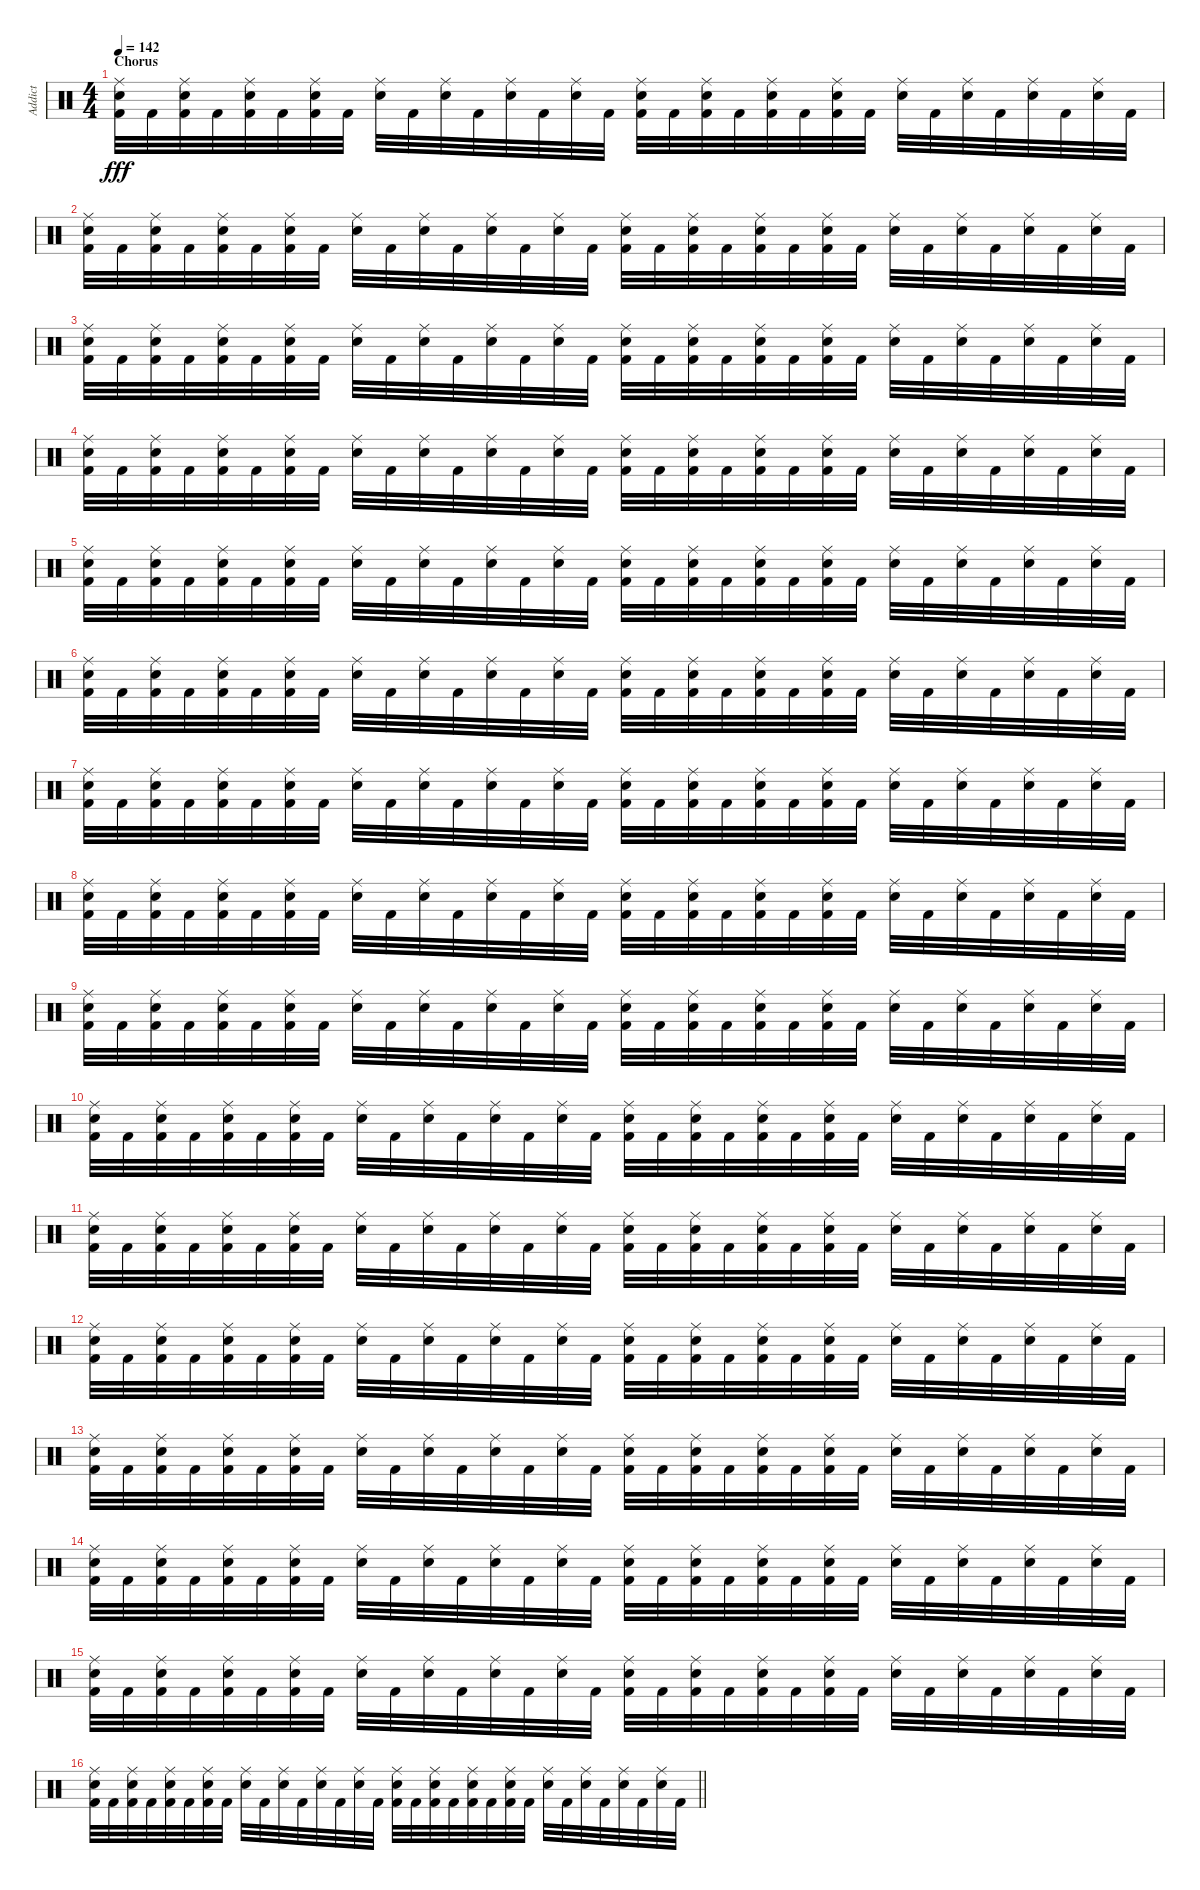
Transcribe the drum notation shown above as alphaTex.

\track ("Addict" "Addict") {instrument percussion}
\staff {score}
\articulation defaults
\ts (4 4)
\section ("" "Chorus")
\tempo 142
\clef neutral
\ks c
("Kick (hit) 2" "Snare (hit) 2" "Ride (middle)").32{dy fff} "Kick (hit) 2".32 ("Kick (hit) 2" "Snare (hit) 2" "Ride (middle)").32 "Kick (hit) 2".32 ("Kick (hit) 2" "Snare (hit) 2" "Ride (middle)").32 "Kick (hit) 2".32 ("Kick (hit) 2" "Snare (hit) 2" "Ride (middle)").32 "Kick (hit) 2".32 ("Snare (hit) 2" "Ride (middle)").32 "Kick (hit) 2".32 ("Snare (hit) 2" "Ride (middle)").32 "Kick (hit) 2".32 ("Snare (hit) 2" "Ride (middle)").32 "Kick (hit) 2".32 ("Snare (hit) 2" "Ride (middle)").32 "Kick (hit) 2".32 ("Kick (hit) 2" "Snare (hit) 2" "Ride (middle)").32 "Kick (hit) 2".32 ("Kick (hit) 2" "Snare (hit) 2" "Ride (middle)").32 "Kick (hit) 2".32 ("Kick (hit) 2" "Snare (hit) 2" "Ride (middle)").32 "Kick (hit) 2".32 ("Kick (hit) 2" "Snare (hit) 2" "Ride (middle)").32 "Kick (hit) 2".32 ("Snare (hit) 2" "Ride (middle)").32 "Kick (hit) 2".32 ("Snare (hit) 2" "Ride (middle)").32 "Kick (hit) 2".32 ("Snare (hit) 2" "Ride (middle)").32 "Kick (hit) 2".32 ("Snare (hit) 2" "Ride (middle)").32 "Kick (hit) 2".32 |
("Kick (hit) 2" "Snare (hit) 2" "Ride (middle)").32 "Kick (hit) 2".32 ("Kick (hit) 2" "Snare (hit) 2" "Ride (middle)").32 "Kick (hit) 2".32 ("Kick (hit) 2" "Snare (hit) 2" "Ride (middle)").32 "Kick (hit) 2".32 ("Kick (hit) 2" "Snare (hit) 2" "Ride (middle)").32 "Kick (hit) 2".32 ("Snare (hit) 2" "Ride (middle)").32 "Kick (hit) 2".32 ("Snare (hit) 2" "Ride (middle)").32 "Kick (hit) 2".32 ("Snare (hit) 2" "Ride (middle)").32 "Kick (hit) 2".32 ("Snare (hit) 2" "Ride (middle)").32 "Kick (hit) 2".32 ("Kick (hit) 2" "Snare (hit) 2" "Ride (middle)").32 "Kick (hit) 2".32 ("Kick (hit) 2" "Snare (hit) 2" "Ride (middle)").32 "Kick (hit) 2".32 ("Kick (hit) 2" "Snare (hit) 2" "Ride (middle)").32 "Kick (hit) 2".32 ("Kick (hit) 2" "Snare (hit) 2" "Ride (middle)").32 "Kick (hit) 2".32 ("Snare (hit) 2" "Ride (middle)").32 "Kick (hit) 2".32 ("Snare (hit) 2" "Ride (middle)").32 "Kick (hit) 2".32 ("Snare (hit) 2" "Ride (middle)").32 "Kick (hit) 2".32 ("Snare (hit) 2" "Ride (middle)").32 "Kick (hit) 2".32 |
("Kick (hit) 2" "Snare (hit) 2" "Ride (middle)").32 "Kick (hit) 2".32 ("Kick (hit) 2" "Snare (hit) 2" "Ride (middle)").32 "Kick (hit) 2".32 ("Kick (hit) 2" "Snare (hit) 2" "Ride (middle)").32 "Kick (hit) 2".32 ("Kick (hit) 2" "Snare (hit) 2" "Ride (middle)").32 "Kick (hit) 2".32 ("Snare (hit) 2" "Ride (middle)").32 "Kick (hit) 2".32 ("Snare (hit) 2" "Ride (middle)").32 "Kick (hit) 2".32 ("Snare (hit) 2" "Ride (middle)").32 "Kick (hit) 2".32 ("Snare (hit) 2" "Ride (middle)").32 "Kick (hit) 2".32 ("Kick (hit) 2" "Snare (hit) 2" "Ride (middle)").32 "Kick (hit) 2".32 ("Kick (hit) 2" "Snare (hit) 2" "Ride (middle)").32 "Kick (hit) 2".32 ("Kick (hit) 2" "Snare (hit) 2" "Ride (middle)").32 "Kick (hit) 2".32 ("Kick (hit) 2" "Snare (hit) 2" "Ride (middle)").32 "Kick (hit) 2".32 ("Snare (hit) 2" "Ride (middle)").32 "Kick (hit) 2".32 ("Snare (hit) 2" "Ride (middle)").32 "Kick (hit) 2".32 ("Snare (hit) 2" "Ride (middle)").32 "Kick (hit) 2".32 ("Snare (hit) 2" "Ride (middle)").32 "Kick (hit) 2".32 |
("Kick (hit) 2" "Snare (hit) 2" "Ride (middle)").32 "Kick (hit) 2".32 ("Kick (hit) 2" "Snare (hit) 2" "Ride (middle)").32 "Kick (hit) 2".32 ("Kick (hit) 2" "Snare (hit) 2" "Ride (middle)").32 "Kick (hit) 2".32 ("Kick (hit) 2" "Snare (hit) 2" "Ride (middle)").32 "Kick (hit) 2".32 ("Snare (hit) 2" "Ride (middle)").32 "Kick (hit) 2".32 ("Snare (hit) 2" "Ride (middle)").32 "Kick (hit) 2".32 ("Snare (hit) 2" "Ride (middle)").32 "Kick (hit) 2".32 ("Snare (hit) 2" "Ride (middle)").32 "Kick (hit) 2".32 ("Kick (hit) 2" "Snare (hit) 2" "Ride (middle)").32 "Kick (hit) 2".32 ("Kick (hit) 2" "Snare (hit) 2" "Ride (middle)").32 "Kick (hit) 2".32 ("Kick (hit) 2" "Snare (hit) 2" "Ride (middle)").32 "Kick (hit) 2".32 ("Kick (hit) 2" "Snare (hit) 2" "Ride (middle)").32 "Kick (hit) 2".32 ("Snare (hit) 2" "Ride (middle)").32 "Kick (hit) 2".32 ("Snare (hit) 2" "Ride (middle)").32 "Kick (hit) 2".32 ("Snare (hit) 2" "Ride (middle)").32 "Kick (hit) 2".32 ("Snare (hit) 2" "Ride (middle)").32 "Kick (hit) 2".32 |
("Kick (hit) 2" "Snare (hit) 2" "Ride (middle)").32 "Kick (hit) 2".32 ("Kick (hit) 2" "Snare (hit) 2" "Ride (middle)").32 "Kick (hit) 2".32 ("Kick (hit) 2" "Snare (hit) 2" "Ride (middle)").32 "Kick (hit) 2".32 ("Kick (hit) 2" "Snare (hit) 2" "Ride (middle)").32 "Kick (hit) 2".32 ("Snare (hit) 2" "Ride (middle)").32 "Kick (hit) 2".32 ("Snare (hit) 2" "Ride (middle)").32 "Kick (hit) 2".32 ("Snare (hit) 2" "Ride (middle)").32 "Kick (hit) 2".32 ("Snare (hit) 2" "Ride (middle)").32 "Kick (hit) 2".32 ("Kick (hit) 2" "Snare (hit) 2" "Ride (middle)").32 "Kick (hit) 2".32 ("Kick (hit) 2" "Snare (hit) 2" "Ride (middle)").32 "Kick (hit) 2".32 ("Kick (hit) 2" "Snare (hit) 2" "Ride (middle)").32 "Kick (hit) 2".32 ("Kick (hit) 2" "Snare (hit) 2" "Ride (middle)").32 "Kick (hit) 2".32 ("Snare (hit) 2" "Ride (middle)").32 "Kick (hit) 2".32 ("Snare (hit) 2" "Ride (middle)").32 "Kick (hit) 2".32 ("Snare (hit) 2" "Ride (middle)").32 "Kick (hit) 2".32 ("Snare (hit) 2" "Ride (middle)").32 "Kick (hit) 2".32 |
("Kick (hit) 2" "Snare (hit) 2" "Ride (middle)").32 "Kick (hit) 2".32 ("Kick (hit) 2" "Snare (hit) 2" "Ride (middle)").32 "Kick (hit) 2".32 ("Kick (hit) 2" "Snare (hit) 2" "Ride (middle)").32 "Kick (hit) 2".32 ("Kick (hit) 2" "Snare (hit) 2" "Ride (middle)").32 "Kick (hit) 2".32 ("Snare (hit) 2" "Ride (middle)").32 "Kick (hit) 2".32 ("Snare (hit) 2" "Ride (middle)").32 "Kick (hit) 2".32 ("Snare (hit) 2" "Ride (middle)").32 "Kick (hit) 2".32 ("Snare (hit) 2" "Ride (middle)").32 "Kick (hit) 2".32 ("Kick (hit) 2" "Snare (hit) 2" "Ride (middle)").32 "Kick (hit) 2".32 ("Kick (hit) 2" "Snare (hit) 2" "Ride (middle)").32 "Kick (hit) 2".32 ("Kick (hit) 2" "Snare (hit) 2" "Ride (middle)").32 "Kick (hit) 2".32 ("Kick (hit) 2" "Snare (hit) 2" "Ride (middle)").32 "Kick (hit) 2".32 ("Snare (hit) 2" "Ride (middle)").32 "Kick (hit) 2".32 ("Snare (hit) 2" "Ride (middle)").32 "Kick (hit) 2".32 ("Snare (hit) 2" "Ride (middle)").32 "Kick (hit) 2".32 ("Snare (hit) 2" "Ride (middle)").32 "Kick (hit) 2".32 |
("Kick (hit) 2" "Snare (hit) 2" "Ride (middle)").32 "Kick (hit) 2".32 ("Kick (hit) 2" "Snare (hit) 2" "Ride (middle)").32 "Kick (hit) 2".32 ("Kick (hit) 2" "Snare (hit) 2" "Ride (middle)").32 "Kick (hit) 2".32 ("Kick (hit) 2" "Snare (hit) 2" "Ride (middle)").32 "Kick (hit) 2".32 ("Snare (hit) 2" "Ride (middle)").32 "Kick (hit) 2".32 ("Snare (hit) 2" "Ride (middle)").32 "Kick (hit) 2".32 ("Snare (hit) 2" "Ride (middle)").32 "Kick (hit) 2".32 ("Snare (hit) 2" "Ride (middle)").32 "Kick (hit) 2".32 ("Kick (hit) 2" "Snare (hit) 2" "Ride (middle)").32 "Kick (hit) 2".32 ("Kick (hit) 2" "Snare (hit) 2" "Ride (middle)").32 "Kick (hit) 2".32 ("Kick (hit) 2" "Snare (hit) 2" "Ride (middle)").32 "Kick (hit) 2".32 ("Kick (hit) 2" "Snare (hit) 2" "Ride (middle)").32 "Kick (hit) 2".32 ("Snare (hit) 2" "Ride (middle)").32 "Kick (hit) 2".32 ("Snare (hit) 2" "Ride (middle)").32 "Kick (hit) 2".32 ("Snare (hit) 2" "Ride (middle)").32 "Kick (hit) 2".32 ("Snare (hit) 2" "Ride (middle)").32 "Kick (hit) 2".32 |
("Kick (hit) 2" "Snare (hit) 2" "Ride (middle)").32 "Kick (hit) 2".32 ("Kick (hit) 2" "Snare (hit) 2" "Ride (middle)").32 "Kick (hit) 2".32 ("Kick (hit) 2" "Snare (hit) 2" "Ride (middle)").32 "Kick (hit) 2".32 ("Kick (hit) 2" "Snare (hit) 2" "Ride (middle)").32 "Kick (hit) 2".32 ("Snare (hit) 2" "Ride (middle)").32 "Kick (hit) 2".32 ("Snare (hit) 2" "Ride (middle)").32 "Kick (hit) 2".32 ("Snare (hit) 2" "Ride (middle)").32 "Kick (hit) 2".32 ("Snare (hit) 2" "Ride (middle)").32 "Kick (hit) 2".32 ("Kick (hit) 2" "Snare (hit) 2" "Ride (middle)").32 "Kick (hit) 2".32 ("Kick (hit) 2" "Snare (hit) 2" "Ride (middle)").32 "Kick (hit) 2".32 ("Kick (hit) 2" "Snare (hit) 2" "Ride (middle)").32 "Kick (hit) 2".32 ("Kick (hit) 2" "Snare (hit) 2" "Ride (middle)").32 "Kick (hit) 2".32 ("Snare (hit) 2" "Ride (middle)").32 "Kick (hit) 2".32 ("Snare (hit) 2" "Ride (middle)").32 "Kick (hit) 2".32 ("Snare (hit) 2" "Ride (middle)").32 "Kick (hit) 2".32 ("Snare (hit) 2" "Ride (middle)").32 "Kick (hit) 2".32 |
("Kick (hit) 2" "Snare (hit) 2" "Ride (middle)").32 "Kick (hit) 2".32 ("Kick (hit) 2" "Snare (hit) 2" "Ride (middle)").32 "Kick (hit) 2".32 ("Kick (hit) 2" "Snare (hit) 2" "Ride (middle)").32 "Kick (hit) 2".32 ("Kick (hit) 2" "Snare (hit) 2" "Ride (middle)").32 "Kick (hit) 2".32 ("Snare (hit) 2" "Ride (middle)").32 "Kick (hit) 2".32 ("Snare (hit) 2" "Ride (middle)").32 "Kick (hit) 2".32 ("Snare (hit) 2" "Ride (middle)").32 "Kick (hit) 2".32 ("Snare (hit) 2" "Ride (middle)").32 "Kick (hit) 2".32 ("Kick (hit) 2" "Snare (hit) 2" "Ride (middle)").32 "Kick (hit) 2".32 ("Kick (hit) 2" "Snare (hit) 2" "Ride (middle)").32 "Kick (hit) 2".32 ("Kick (hit) 2" "Snare (hit) 2" "Ride (middle)").32 "Kick (hit) 2".32 ("Kick (hit) 2" "Snare (hit) 2" "Ride (middle)").32 "Kick (hit) 2".32 ("Snare (hit) 2" "Ride (middle)").32 "Kick (hit) 2".32 ("Snare (hit) 2" "Ride (middle)").32 "Kick (hit) 2".32 ("Snare (hit) 2" "Ride (middle)").32 "Kick (hit) 2".32 ("Snare (hit) 2" "Ride (middle)").32 "Kick (hit) 2".32 |
("Kick (hit) 2" "Snare (hit) 2" "Ride (middle)").32 "Kick (hit) 2".32 ("Kick (hit) 2" "Snare (hit) 2" "Ride (middle)").32 "Kick (hit) 2".32 ("Kick (hit) 2" "Snare (hit) 2" "Ride (middle)").32 "Kick (hit) 2".32 ("Kick (hit) 2" "Snare (hit) 2" "Ride (middle)").32 "Kick (hit) 2".32 ("Snare (hit) 2" "Ride (middle)").32 "Kick (hit) 2".32 ("Snare (hit) 2" "Ride (middle)").32 "Kick (hit) 2".32 ("Snare (hit) 2" "Ride (middle)").32 "Kick (hit) 2".32 ("Snare (hit) 2" "Ride (middle)").32 "Kick (hit) 2".32 ("Kick (hit) 2" "Snare (hit) 2" "Ride (middle)").32 "Kick (hit) 2".32 ("Kick (hit) 2" "Snare (hit) 2" "Ride (middle)").32 "Kick (hit) 2".32 ("Kick (hit) 2" "Snare (hit) 2" "Ride (middle)").32 "Kick (hit) 2".32 ("Kick (hit) 2" "Snare (hit) 2" "Ride (middle)").32 "Kick (hit) 2".32 ("Snare (hit) 2" "Ride (middle)").32 "Kick (hit) 2".32 ("Snare (hit) 2" "Ride (middle)").32 "Kick (hit) 2".32 ("Snare (hit) 2" "Ride (middle)").32 "Kick (hit) 2".32 ("Snare (hit) 2" "Ride (middle)").32 "Kick (hit) 2".32 |
("Kick (hit) 2" "Snare (hit) 2" "Ride (middle)").32 "Kick (hit) 2".32 ("Kick (hit) 2" "Snare (hit) 2" "Ride (middle)").32 "Kick (hit) 2".32 ("Kick (hit) 2" "Snare (hit) 2" "Ride (middle)").32 "Kick (hit) 2".32 ("Kick (hit) 2" "Snare (hit) 2" "Ride (middle)").32 "Kick (hit) 2".32 ("Snare (hit) 2" "Ride (middle)").32 "Kick (hit) 2".32 ("Snare (hit) 2" "Ride (middle)").32 "Kick (hit) 2".32 ("Snare (hit) 2" "Ride (middle)").32 "Kick (hit) 2".32 ("Snare (hit) 2" "Ride (middle)").32 "Kick (hit) 2".32 ("Kick (hit) 2" "Snare (hit) 2" "Ride (middle)").32 "Kick (hit) 2".32 ("Kick (hit) 2" "Snare (hit) 2" "Ride (middle)").32 "Kick (hit) 2".32 ("Kick (hit) 2" "Snare (hit) 2" "Ride (middle)").32 "Kick (hit) 2".32 ("Kick (hit) 2" "Snare (hit) 2" "Ride (middle)").32 "Kick (hit) 2".32 ("Snare (hit) 2" "Ride (middle)").32 "Kick (hit) 2".32 ("Snare (hit) 2" "Ride (middle)").32 "Kick (hit) 2".32 ("Snare (hit) 2" "Ride (middle)").32 "Kick (hit) 2".32 ("Snare (hit) 2" "Ride (middle)").32 "Kick (hit) 2".32 |
("Kick (hit) 2" "Snare (hit) 2" "Ride (middle)").32 "Kick (hit) 2".32 ("Kick (hit) 2" "Snare (hit) 2" "Ride (middle)").32 "Kick (hit) 2".32 ("Kick (hit) 2" "Snare (hit) 2" "Ride (middle)").32 "Kick (hit) 2".32 ("Kick (hit) 2" "Snare (hit) 2" "Ride (middle)").32 "Kick (hit) 2".32 ("Snare (hit) 2" "Ride (middle)").32 "Kick (hit) 2".32 ("Snare (hit) 2" "Ride (middle)").32 "Kick (hit) 2".32 ("Snare (hit) 2" "Ride (middle)").32 "Kick (hit) 2".32 ("Snare (hit) 2" "Ride (middle)").32 "Kick (hit) 2".32 ("Kick (hit) 2" "Snare (hit) 2" "Ride (middle)").32 "Kick (hit) 2".32 ("Kick (hit) 2" "Snare (hit) 2" "Ride (middle)").32 "Kick (hit) 2".32 ("Kick (hit) 2" "Snare (hit) 2" "Ride (middle)").32 "Kick (hit) 2".32 ("Kick (hit) 2" "Snare (hit) 2" "Ride (middle)").32 "Kick (hit) 2".32 ("Snare (hit) 2" "Ride (middle)").32 "Kick (hit) 2".32 ("Snare (hit) 2" "Ride (middle)").32 "Kick (hit) 2".32 ("Snare (hit) 2" "Ride (middle)").32 "Kick (hit) 2".32 ("Snare (hit) 2" "Ride (middle)").32 "Kick (hit) 2".32 |
("Kick (hit) 2" "Snare (hit) 2" "Ride (middle)").32 "Kick (hit) 2".32 ("Kick (hit) 2" "Snare (hit) 2" "Ride (middle)").32 "Kick (hit) 2".32 ("Kick (hit) 2" "Snare (hit) 2" "Ride (middle)").32 "Kick (hit) 2".32 ("Kick (hit) 2" "Snare (hit) 2" "Ride (middle)").32 "Kick (hit) 2".32 ("Snare (hit) 2" "Ride (middle)").32 "Kick (hit) 2".32 ("Snare (hit) 2" "Ride (middle)").32 "Kick (hit) 2".32 ("Snare (hit) 2" "Ride (middle)").32 "Kick (hit) 2".32 ("Snare (hit) 2" "Ride (middle)").32 "Kick (hit) 2".32 ("Kick (hit) 2" "Snare (hit) 2" "Ride (middle)").32 "Kick (hit) 2".32 ("Kick (hit) 2" "Snare (hit) 2" "Ride (middle)").32 "Kick (hit) 2".32 ("Kick (hit) 2" "Snare (hit) 2" "Ride (middle)").32 "Kick (hit) 2".32 ("Kick (hit) 2" "Snare (hit) 2" "Ride (middle)").32 "Kick (hit) 2".32 ("Snare (hit) 2" "Ride (middle)").32 "Kick (hit) 2".32 ("Snare (hit) 2" "Ride (middle)").32 "Kick (hit) 2".32 ("Snare (hit) 2" "Ride (middle)").32 "Kick (hit) 2".32 ("Snare (hit) 2" "Ride (middle)").32 "Kick (hit) 2".32 |
("Kick (hit) 2" "Snare (hit) 2" "Ride (middle)").32 "Kick (hit) 2".32 ("Kick (hit) 2" "Snare (hit) 2" "Ride (middle)").32 "Kick (hit) 2".32 ("Kick (hit) 2" "Snare (hit) 2" "Ride (middle)").32 "Kick (hit) 2".32 ("Kick (hit) 2" "Snare (hit) 2" "Ride (middle)").32 "Kick (hit) 2".32 ("Snare (hit) 2" "Ride (middle)").32 "Kick (hit) 2".32 ("Snare (hit) 2" "Ride (middle)").32 "Kick (hit) 2".32 ("Snare (hit) 2" "Ride (middle)").32 "Kick (hit) 2".32 ("Snare (hit) 2" "Ride (middle)").32 "Kick (hit) 2".32 ("Kick (hit) 2" "Snare (hit) 2" "Ride (middle)").32 "Kick (hit) 2".32 ("Kick (hit) 2" "Snare (hit) 2" "Ride (middle)").32 "Kick (hit) 2".32 ("Kick (hit) 2" "Snare (hit) 2" "Ride (middle)").32 "Kick (hit) 2".32 ("Kick (hit) 2" "Snare (hit) 2" "Ride (middle)").32 "Kick (hit) 2".32 ("Snare (hit) 2" "Ride (middle)").32 "Kick (hit) 2".32 ("Snare (hit) 2" "Ride (middle)").32 "Kick (hit) 2".32 ("Snare (hit) 2" "Ride (middle)").32 "Kick (hit) 2".32 ("Snare (hit) 2" "Ride (middle)").32 "Kick (hit) 2".32 |
("Kick (hit) 2" "Snare (hit) 2" "Ride (middle)").32 "Kick (hit) 2".32 ("Kick (hit) 2" "Snare (hit) 2" "Ride (middle)").32 "Kick (hit) 2".32 ("Kick (hit) 2" "Snare (hit) 2" "Ride (middle)").32 "Kick (hit) 2".32 ("Kick (hit) 2" "Snare (hit) 2" "Ride (middle)").32 "Kick (hit) 2".32 ("Snare (hit) 2" "Ride (middle)").32 "Kick (hit) 2".32 ("Snare (hit) 2" "Ride (middle)").32 "Kick (hit) 2".32 ("Snare (hit) 2" "Ride (middle)").32 "Kick (hit) 2".32 ("Snare (hit) 2" "Ride (middle)").32 "Kick (hit) 2".32 ("Kick (hit) 2" "Snare (hit) 2" "Ride (middle)").32 "Kick (hit) 2".32 ("Kick (hit) 2" "Snare (hit) 2" "Ride (middle)").32 "Kick (hit) 2".32 ("Kick (hit) 2" "Snare (hit) 2" "Ride (middle)").32 "Kick (hit) 2".32 ("Kick (hit) 2" "Snare (hit) 2" "Ride (middle)").32 "Kick (hit) 2".32 ("Snare (hit) 2" "Ride (middle)").32 "Kick (hit) 2".32 ("Snare (hit) 2" "Ride (middle)").32 "Kick (hit) 2".32 ("Snare (hit) 2" "Ride (middle)").32 "Kick (hit) 2".32 ("Snare (hit) 2" "Ride (middle)").32 "Kick (hit) 2".32 |
\barLineRight lightlight
("Kick (hit) 2" "Snare (hit) 2" "Ride (middle)").32 "Kick (hit) 2".32 ("Kick (hit) 2" "Snare (hit) 2" "Ride (middle)").32 "Kick (hit) 2".32 ("Kick (hit) 2" "Snare (hit) 2" "Ride (middle)").32 "Kick (hit) 2".32 ("Kick (hit) 2" "Snare (hit) 2" "Ride (middle)").32 "Kick (hit) 2".32 ("Snare (hit) 2" "Ride (middle)").32 "Kick (hit) 2".32 ("Snare (hit) 2" "Ride (middle)").32 "Kick (hit) 2".32 ("Snare (hit) 2" "Ride (middle)").32 "Kick (hit) 2".32 ("Snare (hit) 2" "Ride (middle)").32 "Kick (hit) 2".32 ("Kick (hit) 2" "Snare (hit) 2" "Ride (middle)").32 "Kick (hit) 2".32 ("Kick (hit) 2" "Snare (hit) 2" "Ride (middle)").32 "Kick (hit) 2".32 ("Kick (hit) 2" "Snare (hit) 2" "Ride (middle)").32 "Kick (hit) 2".32 ("Kick (hit) 2" "Snare (hit) 2" "Ride (middle)").32 "Kick (hit) 2".32 ("Snare (hit) 2" "Ride (middle)").32 "Kick (hit) 2".32 ("Snare (hit) 2" "Ride (middle)").32 "Kick (hit) 2".32 ("Snare (hit) 2" "Ride (middle)").32 "Kick (hit) 2".32 ("Snare (hit) 2" "Ride (middle)").32 "Kick (hit) 2".32
